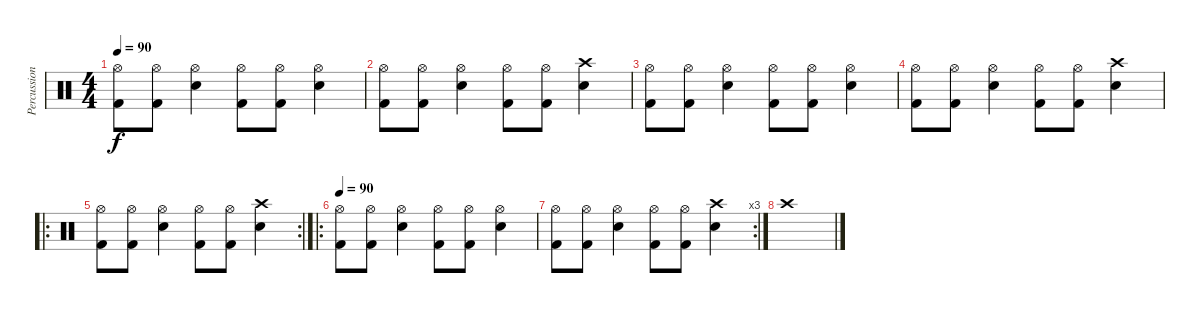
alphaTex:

\track ("Percussion" "Percussion") {instrument percussion}
\staff {score}
\articulation defaults
\ts (4 4)
\tempo 90
\clef neutral
\ks c
("Hi-Hat (open)" "Kick (hit) 2").8{dy f} ("Hi-Hat (open)" "Kick (hit) 2").8 ("Hi-Hat (open)" "Electric Snare (hit)").4 ("Hi-Hat (open)" "Kick (hit) 2").8 ("Hi-Hat (open)" "Kick (hit) 2").8 ("Hi-Hat (open)" "Electric Snare (hit)").4 |
("Hi-Hat (open)" "Kick (hit) 2").8 ("Hi-Hat (open)" "Kick (hit) 2").8 ("Hi-Hat (open)" "Electric Snare (hit)").4 ("Hi-Hat (open)" "Kick (hit) 2").8 ("Hi-Hat (open)" "Kick (hit) 2").8 ("Crash high (hit)" "Electric Snare (hit)").4 |
("Hi-Hat (open)" "Kick (hit) 2").8 ("Hi-Hat (open)" "Kick (hit) 2").8 ("Hi-Hat (open)" "Electric Snare (hit)").4 ("Hi-Hat (open)" "Kick (hit) 2").8 ("Hi-Hat (open)" "Kick (hit) 2").8 ("Hi-Hat (open)" "Electric Snare (hit)").4 |
("Hi-Hat (open)" "Kick (hit) 2").8 ("Hi-Hat (open)" "Kick (hit) 2").8 ("Hi-Hat (open)" "Electric Snare (hit)").4 ("Hi-Hat (open)" "Kick (hit) 2").8 ("Hi-Hat (open)" "Kick (hit) 2").8 ("Crash high (hit)" "Electric Snare (hit)").4 |
\ro
\rc 2
("Hi-Hat (open)" "Kick (hit) 2").8 ("Hi-Hat (open)" "Kick (hit) 2").8 ("Hi-Hat (open)" "Electric Snare (hit)").4 ("Hi-Hat (open)" "Kick (hit) 2").8 ("Hi-Hat (open)" "Kick (hit) 2").8 ("Crash high (hit)" "Electric Snare (hit)").4 |
\ro
\tempo 90
("Hi-Hat (open)" "Kick (hit) 2").8 ("Hi-Hat (open)" "Kick (hit) 2").8 ("Hi-Hat (open)" "Electric Snare (hit)").4 ("Hi-Hat (open)" "Kick (hit) 2").8 ("Hi-Hat (open)" "Kick (hit) 2").8 ("Hi-Hat (open)" "Electric Snare (hit)").4 |
\rc 3
("Hi-Hat (open)" "Kick (hit) 2").8 ("Hi-Hat (open)" "Kick (hit) 2").8 ("Hi-Hat (open)" "Electric Snare (hit)").4 ("Hi-Hat (open)" "Kick (hit) 2").8 ("Hi-Hat (open)" "Kick (hit) 2").8 ("Crash high (hit)" "Electric Snare (hit)").4 |
"Crash high (hit)".1
